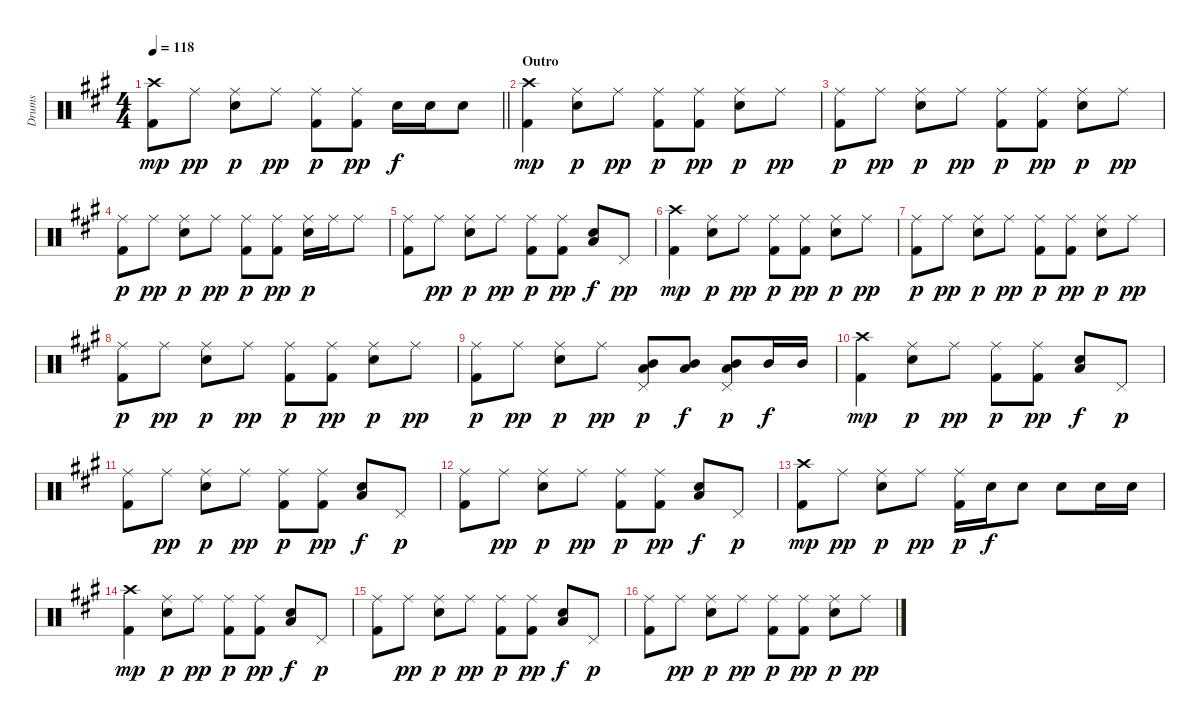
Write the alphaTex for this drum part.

\track ("Drums" "Drums") {instrument percussion}
\staff {score}
\articulation defaults
\ts (4 4)
\tempo 118
\clef neutral
\barLineRight lightlight
\ks a
("Crash high (hit)" "Kick (hit) 2").8{dy mp} "Ride (middle)".8{dy pp} ("Electric Snare (hit)" "Ride (middle)").8{dy p} "Ride (middle)".8{dy pp} ("Kick (hit) 2" "Ride (middle)").8{dy p} ("Kick (hit) 2" "Ride (middle)").8{dy pp} "Electric Snare (hit)".16{dy f} "Electric Snare (hit)".16 "Electric Snare (hit)".8 |
\section ("" "Outro")
("Crash high (hit)" "Kick (hit) 2").4{dy mp} ("Electric Snare (hit)" "Ride (middle)").8{dy p} "Ride (middle)".8{dy pp} ("Kick (hit) 2" "Ride (middle)").8{dy p} ("Kick (hit) 2" "Ride (middle)").8{dy pp} ("Electric Snare (hit)" "Ride (middle)").8{dy p} "Ride (middle)".8{dy pp} |
("Kick (hit) 2" "Ride (middle)").8{dy p} "Ride (middle)".8{dy pp} ("Electric Snare (hit)" "Ride (middle)").8{dy p} "Ride (middle)".8{dy pp} ("Kick (hit) 2" "Ride (middle)").8{dy p} ("Kick (hit) 2" "Ride (middle)").8{dy pp} ("Electric Snare (hit)" "Ride (middle)").8{dy p} "Ride (middle)".8{dy pp} |
("Kick (hit) 2" "Ride (middle)").8{dy p} "Ride (middle)".8{dy pp} ("Electric Snare (hit)" "Ride (middle)").8{dy p} "Ride (middle)".8{dy pp} ("Kick (hit) 2" "Ride (middle)").8{dy p} ("Kick (hit) 2" "Ride (middle)").8{dy pp} ("Electric Snare (hit)" "Ride (middle)").16{dy p} "Ride (middle)".16 "Ride (middle)".8 |
("Kick (hit) 2" "Ride (middle)").8 "Ride (middle)".8{dy pp} ("Electric Snare (hit)" "Ride (middle)").8{dy p} "Ride (middle)".8{dy pp} ("Kick (hit) 2" "Ride (middle)").8{dy p} ("Kick (hit) 2" "Ride (middle)").8{dy pp} ("Low Tom (hit)" "Electric Snare (hit)").8{dy f} "Pedal Hi-Hat (hit)".8{dy pp} |
("Crash high (hit)" "Kick (hit) 2").4{dy mp} ("Electric Snare (hit)" "Ride (middle)").8{dy p} "Ride (middle)".8{dy pp} ("Kick (hit) 2" "Ride (middle)").8{dy p} ("Kick (hit) 2" "Ride (middle)").8{dy pp} ("Electric Snare (hit)" "Ride (middle)").8{dy p} "Ride (middle)".8{dy pp} |
("Kick (hit) 2" "Ride (middle)").8{dy p} "Ride (middle)".8{dy pp} ("Electric Snare (hit)" "Ride (middle)").8{dy p} "Ride (middle)".8{dy pp} ("Kick (hit) 2" "Ride (middle)").8{dy p} ("Kick (hit) 2" "Ride (middle)").8{dy pp} ("Electric Snare (hit)" "Ride (middle)").8{dy p} "Ride (middle)".8{dy pp} |
("Kick (hit) 2" "Ride (middle)").8{dy p} "Ride (middle)".8{dy pp} ("Electric Snare (hit)" "Ride (middle)").8{dy p} "Ride (middle)".8{dy pp} ("Kick (hit) 2" "Ride (middle)").8{dy p} ("Kick (hit) 2" "Ride (middle)").8{dy pp} ("Electric Snare (hit)" "Ride (middle)").8{dy p} "Ride (middle)".8{dy pp} |
("Kick (hit) 2" "Ride (middle)").8{dy p} "Ride (middle)".8{dy pp} ("Electric Snare (hit)" "Ride (middle)").8{dy p} "Ride (middle)".8{dy pp} ("Low Tom (hit)" "Mid Tom (hit)" "Pedal Hi-Hat (hit)").8{dy p} ("Low Tom (hit)" "Mid Tom (hit)").8{dy f} ("Low Tom (hit)" "Mid Tom (hit)" "Pedal Hi-Hat (hit)").8{dy p} "Mid Tom (hit)".16{dy f} "Mid Tom (hit)".16 |
("Crash high (hit)" "Kick (hit) 2").4{dy mp} ("Electric Snare (hit)" "Ride (middle)").8{dy p} "Ride (middle)".8{dy pp} ("Kick (hit) 2" "Ride (middle)").8{dy p} ("Kick (hit) 2" "Ride (middle)").8{dy pp} ("Low Tom (hit)" "Electric Snare (hit)").8{dy f} "Pedal Hi-Hat (hit)".8{dy p} |
("Kick (hit) 2" "Ride (middle)").8 "Ride (middle)".8{dy pp} ("Electric Snare (hit)" "Ride (middle)").8{dy p} "Ride (middle)".8{dy pp} ("Kick (hit) 2" "Ride (middle)").8{dy p} ("Kick (hit) 2" "Ride (middle)").8{dy pp} ("Low Tom (hit)" "Electric Snare (hit)").8{dy f} "Pedal Hi-Hat (hit)".8{dy p} |
("Kick (hit) 2" "Ride (middle)").8 "Ride (middle)".8{dy pp} ("Electric Snare (hit)" "Ride (middle)").8{dy p} "Ride (middle)".8{dy pp} ("Kick (hit) 2" "Ride (middle)").8{dy p} ("Kick (hit) 2" "Ride (middle)").8{dy pp} ("Low Tom (hit)" "Electric Snare (hit)").8{dy f} "Pedal Hi-Hat (hit)".8{dy p} |
("Crash high (hit)" "Kick (hit) 2").8{dy mp} "Ride (middle)".8{dy pp} ("Electric Snare (hit)" "Ride (middle)").8{dy p} "Ride (middle)".8{dy pp} ("Kick (hit) 2" "Ride (middle)").16{dy p} "Electric Snare (hit)".16{dy f} "Electric Snare (hit)".8 "Electric Snare (hit)".8 "Electric Snare (hit)".16 "Electric Snare (hit)".16 |
("Crash high (hit)" "Kick (hit) 2").4{dy mp} ("Electric Snare (hit)" "Ride (middle)").8{dy p} "Ride (middle)".8{dy pp} ("Kick (hit) 2" "Ride (middle)").8{dy p} ("Kick (hit) 2" "Ride (middle)").8{dy pp} ("Low Tom (hit)" "Electric Snare (hit)").8{dy f} "Pedal Hi-Hat (hit)".8{dy p} |
("Kick (hit) 2" "Ride (middle)").8 "Ride (middle)".8{dy pp} ("Electric Snare (hit)" "Ride (middle)").8{dy p} "Ride (middle)".8{dy pp} ("Kick (hit) 2" "Ride (middle)").8{dy p} ("Kick (hit) 2" "Ride (middle)").8{dy pp} ("Low Tom (hit)" "Electric Snare (hit)").8{dy f} "Pedal Hi-Hat (hit)".8{dy p} |
("Kick (hit) 2" "Ride (middle)").8 "Ride (middle)".8{dy pp} ("Electric Snare (hit)" "Ride (middle)").8{dy p} "Ride (middle)".8{dy pp} ("Kick (hit) 2" "Ride (middle)").8{dy p} ("Kick (hit) 2" "Ride (middle)").8{dy pp} ("Electric Snare (hit)" "Ride (middle)").8{dy p} "Ride (middle)".8{dy pp}
